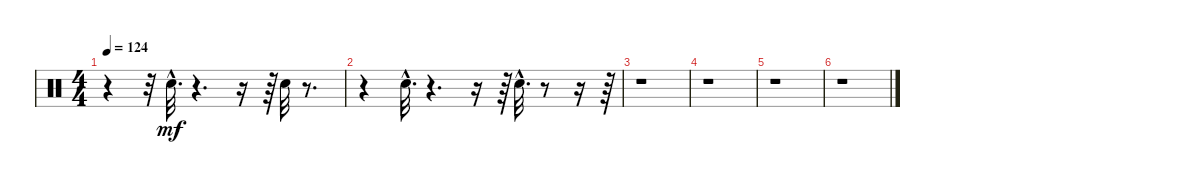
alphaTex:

\track "" {instrument percussion}
\staff {score}
\articulation defaults
\ts (4 4)
\tempo 124
\clef neutral
\ks c
r.4{dy mf} r.32 "Electric Snare (hit)"{hac}.32{d} r.4{d} r.16 r.64 "Electric Snare (hit)".32 r.8{d} |
r.4 "Electric Snare (hit)"{hac}.32{d} r.4{d} r.16 r.64 "Electric Snare (hit)"{hac}.32{d} r.8 r.16 r.64 |
r.1 |
r.1 |
r.1 |
r.1
